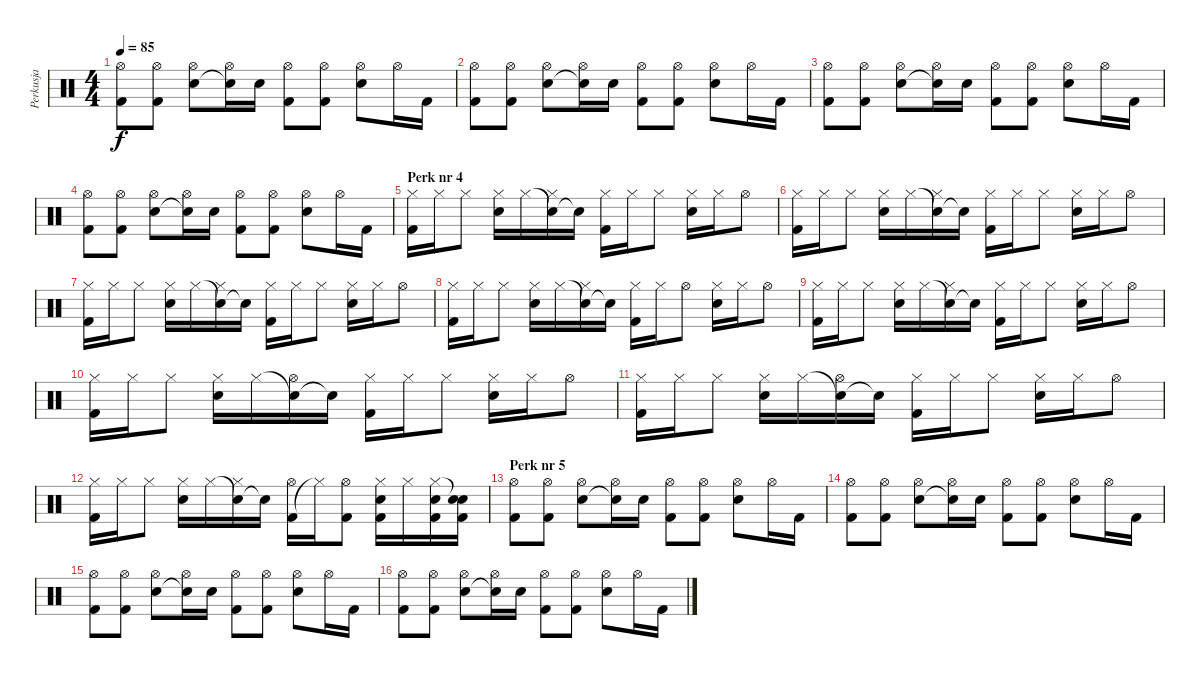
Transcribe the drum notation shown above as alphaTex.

\track ("Perkusja" "Perkusja") {instrument percussion}
\staff {score}
\articulation defaults
\ts (4 4)
\tempo 85
\clef neutral
\ks c
("Kick (hit) 2" "Hi-Hat (open)").8{dy f} ("Kick (hit) 2" "Hi-Hat (open)").8 ("Snare (hit) 2" "Hi-Hat (open)").8 ("Snare (hit)"{t} "Hi-Hat (open)").16 "Snare (hit) 2".16 ("Kick (hit) 2" "Hi-Hat (open)").8 ("Kick (hit) 2" "Hi-Hat (open)").8 ("Snare (hit) 2" "Hi-Hat (open)").8 "Hi-Hat (open)".16 "Kick (hit) 2".16 |
("Kick (hit) 2" "Hi-Hat (open)").8 ("Kick (hit) 2" "Hi-Hat (open)").8 ("Snare (hit) 2" "Hi-Hat (open)").8 ("Snare (hit)"{t} "Hi-Hat (open)").16 "Snare (hit) 2".16 ("Kick (hit) 2" "Hi-Hat (open)").8 ("Kick (hit) 2" "Hi-Hat (open)").8 ("Snare (hit) 2" "Hi-Hat (open)").8 "Hi-Hat (open)".16 "Kick (hit) 2".16 |
("Kick (hit) 2" "Hi-Hat (open)").8 ("Kick (hit) 2" "Hi-Hat (open)").8 ("Snare (hit) 2" "Hi-Hat (open)").8 ("Snare (hit)"{t} "Hi-Hat (open)").16 "Snare (hit) 2".16 ("Kick (hit) 2" "Hi-Hat (open)").8 ("Kick (hit) 2" "Hi-Hat (open)").8 ("Snare (hit) 2" "Hi-Hat (open)").8 "Hi-Hat (open)".16 "Kick (hit) 2".16 |
("Kick (hit) 2" "Hi-Hat (open)").8 ("Kick (hit) 2" "Hi-Hat (open)").8 ("Snare (hit) 2" "Hi-Hat (open)").8 ("Snare (hit)"{t} "Hi-Hat (open)").16 "Snare (hit) 2".16 ("Kick (hit) 2" "Hi-Hat (open)").8 ("Kick (hit) 2" "Hi-Hat (open)").8 ("Snare (hit) 2" "Hi-Hat (open)").8 "Hi-Hat (open)".16 "Kick (hit) 2".16 |
\section ("" "Perk nr 4")
("Kick (hit) 2" "Hi-Hat (closed)").16 "Hi-Hat (closed)".16 "Hi-Hat (closed)".8 ("Snare (hit) 2" "Hi-Hat (closed)").16 "Hi-Hat (closed)".16 ("Snare (hit)"{t} "Hi-Hat (closed)").16 "Snare (hit)"{t}.16 ("Kick (hit) 2" "Hi-Hat (closed)").16 "Hi-Hat (closed)".16 "Hi-Hat (closed)".8 ("Snare (hit) 2" "Hi-Hat (closed)").16 "Hi-Hat (closed)".16 "Hi-Hat (open)".8 |
("Kick (hit) 2" "Hi-Hat (closed)").16 "Hi-Hat (closed)".16 "Hi-Hat (closed)".8 ("Snare (hit) 2" "Hi-Hat (closed)").16 "Hi-Hat (closed)".16 ("Snare (hit)"{t} "Hi-Hat (closed)").16 "Snare (hit)"{t}.16 ("Kick (hit) 2" "Hi-Hat (closed)").16 "Hi-Hat (closed)".16 "Hi-Hat (closed)".8 ("Snare (hit) 2" "Hi-Hat (closed)").16 "Hi-Hat (closed)".16 "Hi-Hat (open)".8 |
("Kick (hit) 2" "Hi-Hat (closed)").16 "Hi-Hat (closed)".16 "Hi-Hat (closed)".8 ("Snare (hit) 2" "Hi-Hat (closed)").16 "Hi-Hat (closed)".16 ("Snare (hit)"{t} "Hi-Hat (closed)").16 "Snare (hit)"{t}.16 ("Kick (hit) 2" "Hi-Hat (closed)").16 "Hi-Hat (closed)".16 "Hi-Hat (closed)".8 ("Snare (hit) 2" "Hi-Hat (closed)").16 "Hi-Hat (closed)".16 "Hi-Hat (open)".8 |
("Kick (hit) 2" "Hi-Hat (closed)").16 "Hi-Hat (closed)".16 "Hi-Hat (closed)".8 ("Snare (hit) 2" "Hi-Hat (closed)").16 "Hi-Hat (closed)".16 ("Snare (hit)"{t} "Hi-Hat (closed)").16 "Snare (hit)"{t}.16 ("Kick (hit) 2" "Hi-Hat (closed)").16 "Hi-Hat (closed)".16 "Hi-Hat (open)".8 ("Snare (hit) 2" "Hi-Hat (closed)").16 "Hi-Hat (closed)".16 "Hi-Hat (open)".8 |
("Kick (hit) 2" "Hi-Hat (closed)").16 "Hi-Hat (closed)".16 "Hi-Hat (closed)".8 ("Snare (hit) 2" "Hi-Hat (closed)").16 "Hi-Hat (closed)".16 ("Snare (hit)"{t} "Hi-Hat (closed)").16 "Snare (hit)"{t}.16 ("Kick (hit) 2" "Hi-Hat (closed)").16 "Hi-Hat (closed)".16 "Hi-Hat (closed)".8 ("Snare (hit) 2" "Hi-Hat (closed)").16 "Hi-Hat (closed)".16 "Hi-Hat (open)".8 |
("Kick (hit) 2" "Hi-Hat (closed)").16 "Hi-Hat (closed)".16 "Hi-Hat (closed)".8 ("Snare (hit) 2" "Hi-Hat (closed)").16 "Hi-Hat (closed)".16 ("Snare (hit)"{t} "Hi-Hat (open)").16 "Snare (hit)"{t}.16 ("Kick (hit) 2" "Hi-Hat (closed)").16 "Hi-Hat (closed)".16 "Hi-Hat (closed)".8 ("Snare (hit) 2" "Hi-Hat (closed)").16 "Hi-Hat (closed)".16 "Hi-Hat (open)".8 |
("Kick (hit) 2" "Hi-Hat (closed)").16 "Hi-Hat (closed)".16 "Hi-Hat (closed)".8 ("Snare (hit) 2" "Hi-Hat (closed)").16 "Hi-Hat (closed)".16 ("Snare (hit)"{t} "Hi-Hat (open)").16 "Snare (hit)"{t}.16 ("Kick (hit) 2" "Hi-Hat (closed)").16 "Hi-Hat (closed)".16 "Hi-Hat (closed)".8 ("Snare (hit) 2" "Hi-Hat (closed)").16 "Hi-Hat (closed)".16 "Hi-Hat (open)".8 |
("Kick (hit) 2" "Hi-Hat (closed)").16 "Hi-Hat (closed)".16 "Hi-Hat (closed)".8 ("Snare (hit) 2" "Hi-Hat (closed)").16 "Hi-Hat (closed)".16 ("Snare (hit)"{t} "Hi-Hat (closed)").16 "Snare (hit)"{t}.16 ("Kick (hit) 2" "Hi-Hat (open)").16 "Hi-Hat (closed)"{t}.16 ("Kick (hit) 2" "Hi-Hat (open)").8 ("Kick (hit) 2" "Snare (hit) 2" "Hi-Hat (closed)").16 "Hi-Hat (closed)".16 ("Kick (hit) 2" "Snare (hit) 2" "Hi-Hat (closed)").16 ("Kick (hit) 2" "Snare (hit) 2" "Snare (hit)"{t}).16 |
\section ("" "Perk nr 5")
("Kick (hit) 2" "Hi-Hat (open)").8 ("Kick (hit) 2" "Hi-Hat (open)").8 ("Snare (hit) 2" "Hi-Hat (open)").8 ("Snare (hit)"{t} "Hi-Hat (open)").16 "Snare (hit) 2".16 ("Kick (hit) 2" "Hi-Hat (open)").8 ("Kick (hit) 2" "Hi-Hat (open)").8 ("Snare (hit) 2" "Hi-Hat (open)").8 "Hi-Hat (open)".16 "Kick (hit) 2".16 |
("Kick (hit) 2" "Hi-Hat (open)").8 ("Kick (hit) 2" "Hi-Hat (open)").8 ("Snare (hit) 2" "Hi-Hat (open)").8 ("Snare (hit)"{t} "Hi-Hat (open)").16 "Snare (hit) 2".16 ("Kick (hit) 2" "Hi-Hat (open)").8 ("Kick (hit) 2" "Hi-Hat (open)").8 ("Snare (hit) 2" "Hi-Hat (open)").8 "Hi-Hat (open)".16 "Kick (hit) 2".16 |
("Kick (hit) 2" "Hi-Hat (open)").8 ("Kick (hit) 2" "Hi-Hat (open)").8 ("Snare (hit) 2" "Hi-Hat (open)").8 ("Snare (hit)"{t} "Hi-Hat (open)").16 "Snare (hit) 2".16 ("Kick (hit) 2" "Hi-Hat (open)").8 ("Kick (hit) 2" "Hi-Hat (open)").8 ("Snare (hit) 2" "Hi-Hat (open)").8 "Hi-Hat (open)".16 "Kick (hit) 2".16 |
("Kick (hit) 2" "Hi-Hat (open)").8 ("Kick (hit) 2" "Hi-Hat (open)").8 ("Snare (hit) 2" "Hi-Hat (open)").8 ("Snare (hit)"{t} "Hi-Hat (open)").16 "Snare (hit) 2".16 ("Kick (hit) 2" "Hi-Hat (open)").8 ("Kick (hit) 2" "Hi-Hat (open)").8 ("Snare (hit) 2" "Hi-Hat (open)").8 "Hi-Hat (open)".16 "Kick (hit) 2".16
